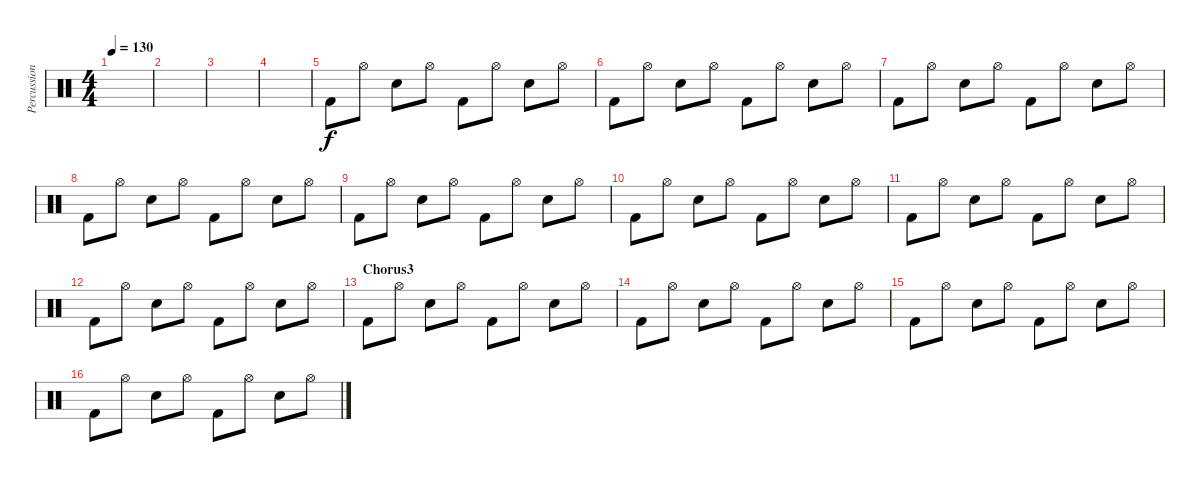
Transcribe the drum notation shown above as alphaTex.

\track ("Percussion" "Percussion") {instrument percussion}
\staff {score}
\articulation defaults
\ts (4 4)
\tempo 130
\clef neutral
\ks c
|
|
|
|
"Kick (hit) 2".8 "Hi-Hat (open)".8 "Electric Snare (hit)".8 "Hi-Hat (open)".8 "Kick (hit) 2".8 "Hi-Hat (open)".8 "Electric Snare (hit)".8 "Hi-Hat (open)".8 |
"Kick (hit) 2".8 "Hi-Hat (open)".8 "Electric Snare (hit)".8 "Hi-Hat (open)".8 "Kick (hit) 2".8 "Hi-Hat (open)".8 "Electric Snare (hit)".8 "Hi-Hat (open)".8 |
"Kick (hit) 2".8 "Hi-Hat (open)".8 "Electric Snare (hit)".8 "Hi-Hat (open)".8 "Kick (hit) 2".8 "Hi-Hat (open)".8 "Electric Snare (hit)".8 "Hi-Hat (open)".8 |
"Kick (hit) 2".8 "Hi-Hat (open)".8 "Electric Snare (hit)".8 "Hi-Hat (open)".8 "Kick (hit) 2".8 "Hi-Hat (open)".8 "Electric Snare (hit)".8 "Hi-Hat (open)".8 |
"Kick (hit) 2".8 "Hi-Hat (open)".8 "Electric Snare (hit)".8 "Hi-Hat (open)".8 "Kick (hit) 2".8 "Hi-Hat (open)".8 "Electric Snare (hit)".8 "Hi-Hat (open)".8 |
"Kick (hit) 2".8 "Hi-Hat (open)".8 "Electric Snare (hit)".8 "Hi-Hat (open)".8 "Kick (hit) 2".8 "Hi-Hat (open)".8 "Electric Snare (hit)".8 "Hi-Hat (open)".8 |
"Kick (hit) 2".8 "Hi-Hat (open)".8 "Electric Snare (hit)".8 "Hi-Hat (open)".8 "Kick (hit) 2".8 "Hi-Hat (open)".8 "Electric Snare (hit)".8 "Hi-Hat (open)".8 |
"Kick (hit) 2".8 "Hi-Hat (open)".8 "Electric Snare (hit)".8 "Hi-Hat (open)".8 "Kick (hit) 2".8 "Hi-Hat (open)".8 "Electric Snare (hit)".8 "Hi-Hat (open)".8 |
\section ("" "Chorus3")
"Kick (hit) 2".8 "Hi-Hat (open)".8 "Electric Snare (hit)".8 "Hi-Hat (open)".8 "Kick (hit) 2".8 "Hi-Hat (open)".8 "Electric Snare (hit)".8 "Hi-Hat (open)".8 |
"Kick (hit) 2".8 "Hi-Hat (open)".8 "Electric Snare (hit)".8 "Hi-Hat (open)".8 "Kick (hit) 2".8 "Hi-Hat (open)".8 "Electric Snare (hit)".8 "Hi-Hat (open)".8 |
"Kick (hit) 2".8 "Hi-Hat (open)".8 "Electric Snare (hit)".8 "Hi-Hat (open)".8 "Kick (hit) 2".8 "Hi-Hat (open)".8 "Electric Snare (hit)".8 "Hi-Hat (open)".8 |
"Kick (hit) 2".8 "Hi-Hat (open)".8 "Electric Snare (hit)".8 "Hi-Hat (open)".8 "Kick (hit) 2".8 "Hi-Hat (open)".8 "Electric Snare (hit)".8 "Hi-Hat (open)".8
